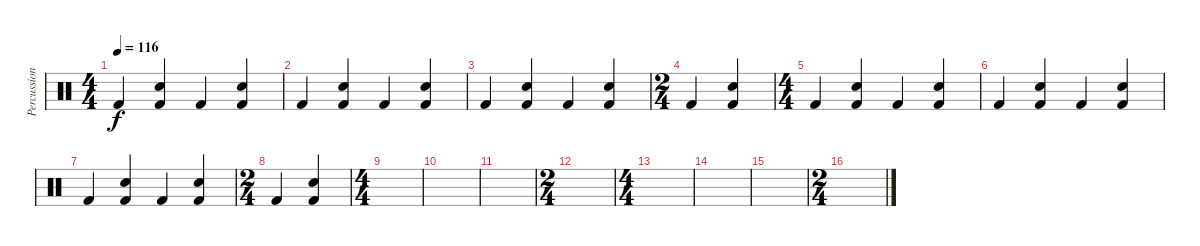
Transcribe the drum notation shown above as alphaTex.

\track ("Percussion" "Percussion") {instrument percussion}
\staff {score}
\articulation defaults
\ts (4 4)
\tempo 116
\clef neutral
\ks c "Kick (hit) 2".4{dy f}
("Hand Clap (hit)" "Kick (hit) 2").4 "Kick (hit) 2".4 ("Hand Clap (hit)" "Kick (hit) 2").4 |
"Kick (hit) 2".4 ("Hand Clap (hit)" "Kick (hit) 2").4 "Kick (hit) 2".4 ("Hand Clap (hit)" "Kick (hit) 2").4 |
"Kick (hit) 2".4 ("Hand Clap (hit)" "Kick (hit) 2").4 "Kick (hit) 2".4 ("Hand Clap (hit)" "Kick (hit) 2").4 |
\ts (2 4)
"Kick (hit) 2".4 ("Hand Clap (hit)" "Kick (hit) 2").4 |
\ts (4 4)
"Kick (hit) 2".4 ("Hand Clap (hit)" "Kick (hit) 2").4 "Kick (hit) 2".4 ("Hand Clap (hit)" "Kick (hit) 2").4 |
"Kick (hit) 2".4 ("Hand Clap (hit)" "Kick (hit) 2").4 "Kick (hit) 2".4 ("Hand Clap (hit)" "Kick (hit) 2").4 |
"Kick (hit) 2".4 ("Hand Clap (hit)" "Kick (hit) 2").4 "Kick (hit) 2".4 ("Hand Clap (hit)" "Kick (hit) 2").4 |
\ts (2 4)
"Kick (hit) 2".4 ("Hand Clap (hit)" "Kick (hit) 2").4 |
\ts (4 4)
|
|
|
\ts (2 4)
|
\ts (4 4)
|
|
|
\ts (2 4)
